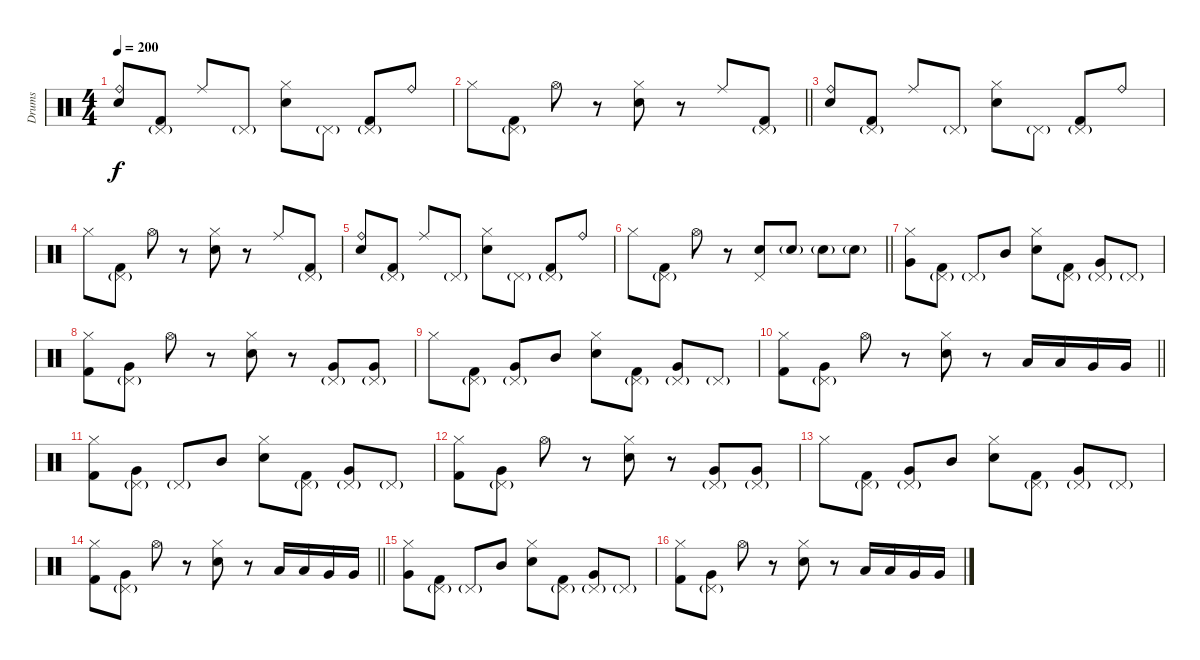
\track ("Drums" "Drums") {instrument percussion}
\staff {score}
\articulation defaults
\ts (4 4)
\tempo 200
\clef neutral
\ks c
("Ride (bell)" "Electric Snare (hit)").8{dy f} ("Pedal Hi-Hat (hit)"{g} "Kick (hit) 2").8 "Ride (middle)".8 "Pedal Hi-Hat (hit)"{g}.8 ("Hi-Hat (closed)" "Electric Snare (hit)").8 "Pedal Hi-Hat (hit)"{g}.8 ("Pedal Hi-Hat (hit)"{g} "Kick (hit) 2").8 "Ride (bell)".8 |
\barLineRight lightlight "Hi-Hat (closed)".8
("Pedal Hi-Hat (hit)"{g} "Kick (hit) 2").8 "Hi-Hat (open)".8 r.8 ("Hi-Hat (closed)" "Electric Snare (hit)").8 r.8 "Ride (middle)".8 ("Pedal Hi-Hat (hit)"{g} "Kick (hit) 2").8 |
("Ride (bell)" "Electric Snare (hit)").8 ("Pedal Hi-Hat (hit)"{g} "Kick (hit) 2").8 "Ride (middle)".8 "Pedal Hi-Hat (hit)"{g}.8 ("Hi-Hat (closed)" "Electric Snare (hit)").8 "Pedal Hi-Hat (hit)"{g}.8 ("Pedal Hi-Hat (hit)"{g} "Kick (hit) 2").8 "Ride (bell)".8 |
"Hi-Hat (closed)".8 ("Pedal Hi-Hat (hit)"{g} "Kick (hit) 2").8 "Hi-Hat (open)".8 r.8 ("Hi-Hat (closed)" "Electric Snare (hit)").8 r.8 "Ride (middle)".8 ("Pedal Hi-Hat (hit)"{g} "Kick (hit) 2").8 |
("Ride (bell)" "Electric Snare (hit)").8 ("Pedal Hi-Hat (hit)"{g} "Kick (hit) 2").8 "Ride (middle)".8 "Pedal Hi-Hat (hit)"{g}.8 ("Hi-Hat (closed)" "Electric Snare (hit)").8 "Pedal Hi-Hat (hit)"{g}.8 ("Pedal Hi-Hat (hit)"{g} "Kick (hit) 2").8 "Ride (bell)".8 |
\barLineRight lightlight "Hi-Hat (closed)".8
("Pedal Hi-Hat (hit)"{g} "Kick (hit) 2").8 "Hi-Hat (open)".8 r.8 ("Pedal Hi-Hat (hit)" "Electric Snare (hit)").8 "Electric Snare (hit)"{g}.8 "Electric Snare (hit)"{g}.8 "Electric Snare (hit)"{g}.8 |
("Hi-Hat (closed)" "Very Low Tom (hit)").8 ("Pedal Hi-Hat (hit)"{g} "Kick (hit) 2").8 "Pedal Hi-Hat (hit)"{g}.8 "Mid Tom (hit)".8 ("Hi-Hat (closed)" "Electric Snare (hit)").8 ("Pedal Hi-Hat (hit)"{g} "Kick (hit) 2").8 ("Pedal Hi-Hat (hit)"{g} "Very Low Tom (hit)").8 "Pedal Hi-Hat (hit)"{g}.8 |
("Hi-Hat (closed)" "Kick (hit) 2").8 ("Pedal Hi-Hat (hit)"{g} "Very Low Tom (hit)").8 "Hi-Hat (open)".8 r.8 ("Hi-Hat (closed)" "Electric Snare (hit)").8 r.8 ("Pedal Hi-Hat (hit)"{g} "Very Low Tom (hit)").8 ("Pedal Hi-Hat (hit)"{g} "Very Low Tom (hit)").8 |
"Hi-Hat (closed)".8 ("Pedal Hi-Hat (hit)"{g} "Kick (hit) 2").8 ("Pedal Hi-Hat (hit)"{g} "Very Low Tom (hit)").8 "Mid Tom (hit)".8 ("Hi-Hat (closed)" "Electric Snare (hit)").8 ("Pedal Hi-Hat (hit)"{g} "Kick (hit) 2").8 ("Pedal Hi-Hat (hit)"{g} "Very Low Tom (hit)").8 "Pedal Hi-Hat (hit)"{g}.8 |
\barLineRight lightlight
("Hi-Hat (closed)" "Kick (hit) 2").8 ("Pedal Hi-Hat (hit)"{g} "Very Low Tom (hit)").8 "Hi-Hat (open)".8 r.8 ("Hi-Hat (closed)" "Electric Snare (hit)").8 r.8 "Low Tom (hit)".16 "Low Tom (hit)".16 "Very Low Tom (hit)".16 "Very Low Tom (hit)".16 |
("Hi-Hat (closed)" "Kick (hit) 2").8 ("Pedal Hi-Hat (hit)"{g} "Very Low Tom (hit)").8 "Pedal Hi-Hat (hit)"{g}.8 "Mid Tom (hit)".8 ("Hi-Hat (closed)" "Electric Snare (hit)").8 ("Pedal Hi-Hat (hit)"{g} "Kick (hit) 2").8 ("Pedal Hi-Hat (hit)"{g} "Very Low Tom (hit)").8 "Pedal Hi-Hat (hit)"{g}.8 |
("Hi-Hat (closed)" "Kick (hit) 2").8 ("Pedal Hi-Hat (hit)"{g} "Very Low Tom (hit)").8 "Hi-Hat (open)".8 r.8 ("Hi-Hat (closed)" "Electric Snare (hit)").8 r.8 ("Pedal Hi-Hat (hit)"{g} "Very Low Tom (hit)").8 ("Pedal Hi-Hat (hit)"{g} "Very Low Tom (hit)").8 |
"Hi-Hat (closed)".8 ("Pedal Hi-Hat (hit)"{g} "Kick (hit) 2").8 ("Pedal Hi-Hat (hit)"{g} "Very Low Tom (hit)").8 "Mid Tom (hit)".8 ("Hi-Hat (closed)" "Electric Snare (hit)").8 ("Pedal Hi-Hat (hit)"{g} "Kick (hit) 2").8 ("Pedal Hi-Hat (hit)"{g} "Very Low Tom (hit)").8 "Pedal Hi-Hat (hit)"{g}.8 |
\barLineRight lightlight
("Hi-Hat (closed)" "Kick (hit) 2").8 ("Pedal Hi-Hat (hit)"{g} "Very Low Tom (hit)").8 "Hi-Hat (open)".8 r.8 ("Hi-Hat (closed)" "Electric Snare (hit)").8 r.8 "Low Tom (hit)".16 "Low Tom (hit)".16 "Very Low Tom (hit)".16 "Very Low Tom (hit)".16 |
("Hi-Hat (closed)" "Very Low Tom (hit)").8 ("Pedal Hi-Hat (hit)"{g} "Kick (hit) 2").8 "Pedal Hi-Hat (hit)"{g}.8 "Mid Tom (hit)".8 ("Hi-Hat (closed)" "Electric Snare (hit)").8 ("Pedal Hi-Hat (hit)"{g} "Kick (hit) 2").8 ("Pedal Hi-Hat (hit)"{g} "Very Low Tom (hit)").8 "Pedal Hi-Hat (hit)"{g}.8 |
("Hi-Hat (closed)" "Kick (hit) 2").8 ("Pedal Hi-Hat (hit)"{g} "Very Low Tom (hit)").8 "Hi-Hat (open)".8 r.8 ("Hi-Hat (closed)" "Electric Snare (hit)").8 r.8 "Low Tom (hit)".16 "Low Tom (hit)".16 "Very Low Tom (hit)".16 "Very Low Tom (hit)".16
